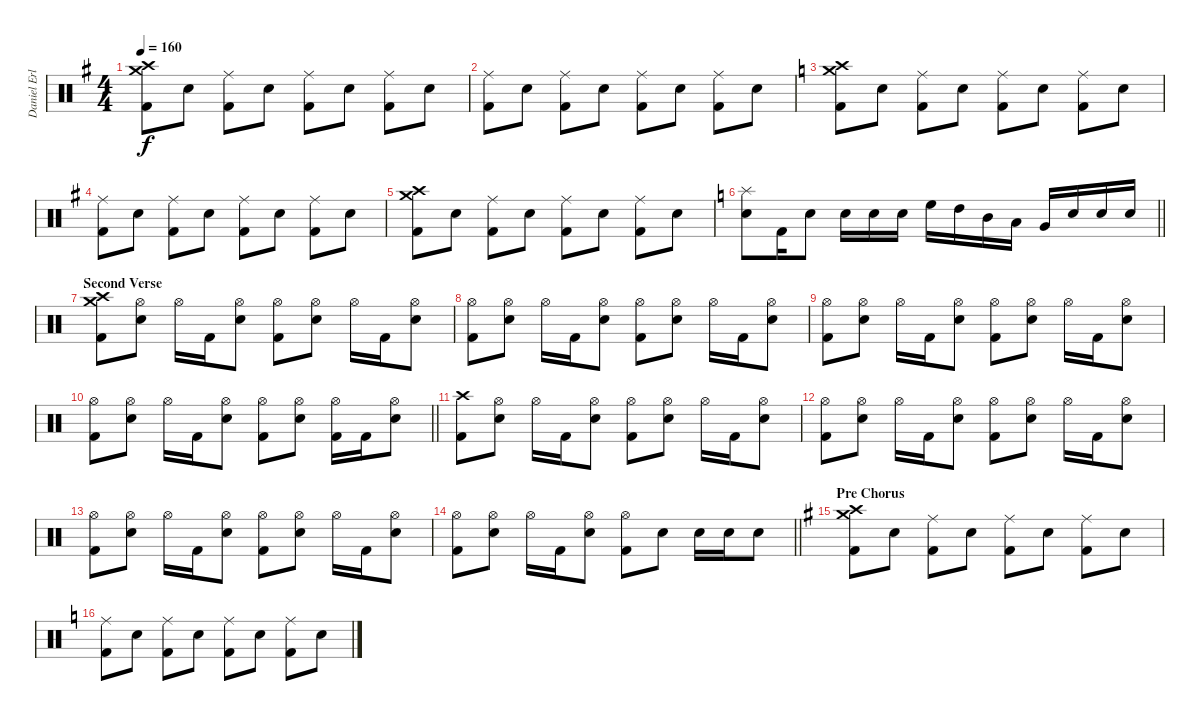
\track ("Daniel Erlandsson" "Daniel Erl") {instrument percussion}
\staff {score}
\articulation defaults
\ts (4 4)
\tempo 160
\clef neutral
\ks g
("Crash medium (hit)" "Crash high (hit)" "Kick (hit) 2").8{dy f} "Electric Snare (hit)".8 ("Ride (middle)" "Kick (hit) 2").8 "Electric Snare (hit)".8 ("Ride (middle)" "Kick (hit) 2").8 "Electric Snare (hit)".8 ("Ride (middle)" "Kick (hit) 2").8 "Electric Snare (hit)".8 |
("Ride (middle)" "Kick (hit) 2").8 "Electric Snare (hit)".8 ("Ride (middle)" "Kick (hit) 2").8 "Electric Snare (hit)".8 ("Ride (middle)" "Kick (hit) 2").8 "Electric Snare (hit)".8 ("Ride (middle)" "Kick (hit) 2").8 "Electric Snare (hit)".8 |
\ks c
("Crash medium (hit)" "Crash high (hit)" "Kick (hit) 2").8 "Electric Snare (hit)".8 ("Ride (middle)" "Kick (hit) 2").8 "Electric Snare (hit)".8 ("Ride (middle)" "Kick (hit) 2").8 "Electric Snare (hit)".8 ("Ride (middle)" "Kick (hit) 2").8 "Electric Snare (hit)".8 |
\ks g
("Ride (middle)" "Kick (hit) 2").8 "Electric Snare (hit)".8 ("Ride (middle)" "Kick (hit) 2").8 "Electric Snare (hit)".8 ("Ride (middle)" "Kick (hit) 2").8 "Electric Snare (hit)".8 ("Ride (middle)" "Kick (hit) 2").8 "Electric Snare (hit)".8 |
("Crash medium (hit)" "Crash high (hit)" "Kick (hit) 2").8 "Electric Snare (hit)".8 ("Ride (middle)" "Kick (hit) 2").8 "Electric Snare (hit)".8 ("Ride (middle)" "Kick (hit) 2").8 "Electric Snare (hit)".8 ("Ride (middle)" "Kick (hit) 2").8 "Electric Snare (hit)".8 |
\barLineRight lightlight
\ks c
("Splash (hit)" "Electric Snare (hit)").8 "Kick (hit) 2".16 "Electric Snare (hit)".8 "Electric Snare (hit)".16 "Electric Snare (hit)".16 "Electric Snare (hit)".16 "High Floor Tom (hit)".16 "High Tom (hit)".16 "Mid Tom (hit)".16 "Low Tom (hit)".16 "Very Low Tom (hit)".16 "Electric Snare (hit)".16 "Electric Snare (hit)".16 "Electric Snare (hit)".16 |
\section ("" "Second Verse")
("Crash medium (hit)" "Crash high (hit)" "Kick (hit) 2").8 ("Hi-Hat (open)" "Electric Snare (hit)").8 "Hi-Hat (open)".16 "Kick (hit) 2".16 ("Hi-Hat (open)" "Electric Snare (hit)").8 ("Hi-Hat (open)" "Kick (hit) 2").8 ("Hi-Hat (open)" "Electric Snare (hit)").8 "Hi-Hat (open)".16 "Kick (hit) 2".16 ("Hi-Hat (open)" "Electric Snare (hit)").8 |
("Hi-Hat (open)" "Kick (hit) 2").8 ("Hi-Hat (open)" "Electric Snare (hit)").8 "Hi-Hat (open)".16 "Kick (hit) 2".16 ("Hi-Hat (open)" "Electric Snare (hit)").8 ("Hi-Hat (open)" "Kick (hit) 2").8 ("Hi-Hat (open)" "Electric Snare (hit)").8 "Hi-Hat (open)".16 "Kick (hit) 2".16 ("Hi-Hat (open)" "Electric Snare (hit)").8 |
("Hi-Hat (open)" "Kick (hit) 2").8 ("Hi-Hat (open)" "Electric Snare (hit)").8 "Hi-Hat (open)".16 "Kick (hit) 2".16 ("Hi-Hat (open)" "Electric Snare (hit)").8 ("Hi-Hat (open)" "Kick (hit) 2").8 ("Hi-Hat (open)" "Electric Snare (hit)").8 "Hi-Hat (open)".16 "Kick (hit) 2".16 ("Hi-Hat (open)" "Electric Snare (hit)").8 |
\barLineRight lightlight
("Hi-Hat (open)" "Kick (hit) 2").8 ("Hi-Hat (open)" "Electric Snare (hit)").8 "Hi-Hat (open)".16 "Kick (hit) 2".16 ("Hi-Hat (open)" "Electric Snare (hit)").8 ("Hi-Hat (open)" "Kick (hit) 2").8 ("Hi-Hat (open)" "Electric Snare (hit)").8 ("Hi-Hat (open)" "Kick (hit) 2").16 "Kick (hit) 2".16 ("Hi-Hat (open)" "Electric Snare (hit)").8 |
("Crash high (hit)" "Kick (hit) 2").8 ("Hi-Hat (open)" "Electric Snare (hit)").8 "Hi-Hat (open)".16 "Kick (hit) 2".16 ("Hi-Hat (open)" "Electric Snare (hit)").8 ("Hi-Hat (open)" "Kick (hit) 2").8 ("Hi-Hat (open)" "Electric Snare (hit)").8 "Hi-Hat (open)".16 "Kick (hit) 2".16 ("Hi-Hat (open)" "Electric Snare (hit)").8 |
("Hi-Hat (open)" "Kick (hit) 2").8 ("Hi-Hat (open)" "Electric Snare (hit)").8 "Hi-Hat (open)".16 "Kick (hit) 2".16 ("Hi-Hat (open)" "Electric Snare (hit)").8 ("Hi-Hat (open)" "Kick (hit) 2").8 ("Hi-Hat (open)" "Electric Snare (hit)").8 "Hi-Hat (open)".16 "Kick (hit) 2".16 ("Hi-Hat (open)" "Electric Snare (hit)").8 |
("Hi-Hat (open)" "Kick (hit) 2").8 ("Hi-Hat (open)" "Electric Snare (hit)").8 "Hi-Hat (open)".16 "Kick (hit) 2".16 ("Hi-Hat (open)" "Electric Snare (hit)").8 ("Hi-Hat (open)" "Kick (hit) 2").8 ("Hi-Hat (open)" "Electric Snare (hit)").8 "Hi-Hat (open)".16 "Kick (hit) 2".16 ("Hi-Hat (open)" "Electric Snare (hit)").8 |
\barLineRight lightlight
("Hi-Hat (open)" "Kick (hit) 2").8 ("Hi-Hat (open)" "Electric Snare (hit)").8 "Hi-Hat (open)".16 "Kick (hit) 2".16 ("Hi-Hat (open)" "Electric Snare (hit)").8 ("Hi-Hat (open)" "Kick (hit) 2").8 "Electric Snare (hit)".8 "Electric Snare (hit)".16 "Electric Snare (hit)".16 "Electric Snare (hit)".8 |
\section ("" "Pre Chorus")
\ks g
("Crash medium (hit)" "Crash high (hit)" "Kick (hit) 2").8 "Electric Snare (hit)".8 ("Ride (middle)" "Kick (hit) 2").8 "Electric Snare (hit)".8 ("Ride (middle)" "Kick (hit) 2").8 "Electric Snare (hit)".8 ("Ride (middle)" "Kick (hit) 2").8 "Electric Snare (hit)".8 |
\ks c
("Ride (middle)" "Kick (hit) 2").8 "Electric Snare (hit)".8 ("Ride (middle)" "Kick (hit) 2").8 "Electric Snare (hit)".8 ("Ride (middle)" "Kick (hit) 2").8 "Electric Snare (hit)".8 ("Ride (middle)" "Kick (hit) 2").8 "Electric Snare (hit)".8
